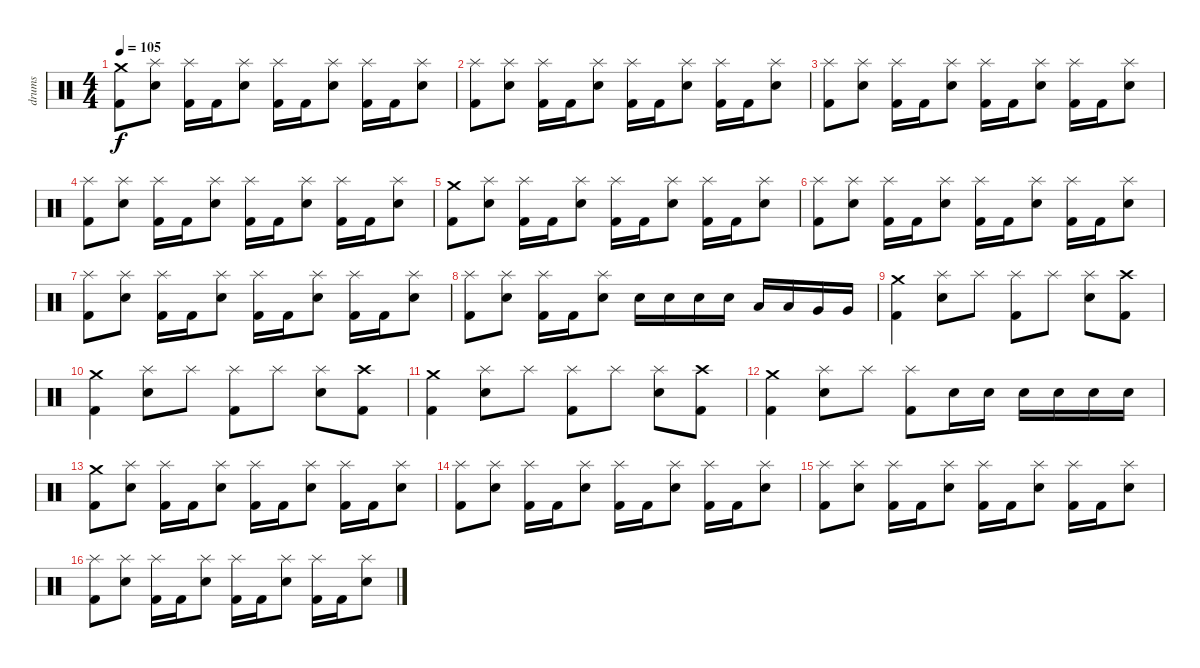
\track ("drums" "drums") {instrument percussion}
\staff {score}
\articulation defaults
\ts (4 4)
\tempo 105
\clef neutral
\ks c
("Crash medium (hit)" "Kick (hit) 2").8{dy f} ("Splash (hit)" "Electric Snare (hit)").8 ("Splash (hit)" "Kick (hit) 2").16 "Kick (hit) 2".16 ("Splash (hit)" "Electric Snare (hit)").8 ("Splash (hit)" "Kick (hit) 2").16 "Kick (hit) 2".16 ("Splash (hit)" "Electric Snare (hit)").8 ("Splash (hit)" "Kick (hit) 2").16 "Kick (hit) 2".16 ("Splash (hit)" "Electric Snare (hit)").8 |
("Splash (hit)" "Kick (hit) 2").8 ("Splash (hit)" "Electric Snare (hit)").8 ("Splash (hit)" "Kick (hit) 2").16 "Kick (hit) 2".16 ("Splash (hit)" "Electric Snare (hit)").8 ("Splash (hit)" "Kick (hit) 2").16 "Kick (hit) 2".16 ("Splash (hit)" "Electric Snare (hit)").8 ("Splash (hit)" "Kick (hit) 2").16 "Kick (hit) 2".16 ("Splash (hit)" "Electric Snare (hit)").8 |
("Splash (hit)" "Kick (hit) 2").8 ("Splash (hit)" "Electric Snare (hit)").8 ("Splash (hit)" "Kick (hit) 2").16 "Kick (hit) 2".16 ("Splash (hit)" "Electric Snare (hit)").8 ("Splash (hit)" "Kick (hit) 2").16 "Kick (hit) 2".16 ("Splash (hit)" "Electric Snare (hit)").8 ("Splash (hit)" "Kick (hit) 2").16 "Kick (hit) 2".16 ("Splash (hit)" "Electric Snare (hit)").8 |
("Splash (hit)" "Kick (hit) 2").8 ("Splash (hit)" "Electric Snare (hit)").8 ("Splash (hit)" "Kick (hit) 2").16 "Kick (hit) 2".16 ("Splash (hit)" "Electric Snare (hit)").8 ("Splash (hit)" "Kick (hit) 2").16 "Kick (hit) 2".16 ("Splash (hit)" "Electric Snare (hit)").8 ("Splash (hit)" "Kick (hit) 2").16 "Kick (hit) 2".16 ("Splash (hit)" "Electric Snare (hit)").8 |
("Crash medium (hit)" "Kick (hit) 2").8 ("Splash (hit)" "Electric Snare (hit)").8 ("Splash (hit)" "Kick (hit) 2").16 "Kick (hit) 2".16 ("Splash (hit)" "Electric Snare (hit)").8 ("Splash (hit)" "Kick (hit) 2").16 "Kick (hit) 2".16 ("Splash (hit)" "Electric Snare (hit)").8 ("Splash (hit)" "Kick (hit) 2").16 "Kick (hit) 2".16 ("Splash (hit)" "Electric Snare (hit)").8 |
("Splash (hit)" "Kick (hit) 2").8 ("Splash (hit)" "Electric Snare (hit)").8 ("Splash (hit)" "Kick (hit) 2").16 "Kick (hit) 2".16 ("Splash (hit)" "Electric Snare (hit)").8 ("Splash (hit)" "Kick (hit) 2").16 "Kick (hit) 2".16 ("Splash (hit)" "Electric Snare (hit)").8 ("Splash (hit)" "Kick (hit) 2").16 "Kick (hit) 2".16 ("Splash (hit)" "Electric Snare (hit)").8 |
("Splash (hit)" "Kick (hit) 2").8 ("Splash (hit)" "Electric Snare (hit)").8 ("Splash (hit)" "Kick (hit) 2").16 "Kick (hit) 2".16 ("Splash (hit)" "Electric Snare (hit)").8 ("Splash (hit)" "Kick (hit) 2").16 "Kick (hit) 2".16 ("Splash (hit)" "Electric Snare (hit)").8 ("Splash (hit)" "Kick (hit) 2").16 "Kick (hit) 2".16 ("Splash (hit)" "Electric Snare (hit)").8 |
("Splash (hit)" "Kick (hit) 2").8 ("Splash (hit)" "Electric Snare (hit)").8 ("Splash (hit)" "Kick (hit) 2").16 "Kick (hit) 2".16 ("Splash (hit)" "Electric Snare (hit)").8 "Electric Snare (hit)".16 "Electric Snare (hit)".16 "Electric Snare (hit)".16 "Electric Snare (hit)".16 "Low Tom (hit)".16 "Low Tom (hit)".16 "Very Low Tom (hit)".16 "Very Low Tom (hit)".16 |
("Crash medium (hit)" "Kick (hit) 2").4 ("Splash (hit)" "Electric Snare (hit)").8 "Splash (hit)".8 ("Splash (hit)" "Kick (hit) 2").8 "Splash (hit)".8 ("Splash (hit)" "Electric Snare (hit)").8 ("Crash high (hit)" "Kick (hit) 2").8 |
("Crash medium (hit)" "Kick (hit) 2").4 ("Splash (hit)" "Electric Snare (hit)").8 "Splash (hit)".8 ("Splash (hit)" "Kick (hit) 2").8 "Splash (hit)".8 ("Splash (hit)" "Electric Snare (hit)").8 ("Crash high (hit)" "Kick (hit) 2").8 |
("Crash medium (hit)" "Kick (hit) 2").4 ("Splash (hit)" "Electric Snare (hit)").8 "Splash (hit)".8 ("Splash (hit)" "Kick (hit) 2").8 "Splash (hit)".8 ("Splash (hit)" "Electric Snare (hit)").8 ("Crash high (hit)" "Kick (hit) 2").8 |
("Crash medium (hit)" "Kick (hit) 2").4 ("Splash (hit)" "Electric Snare (hit)").8 "Splash (hit)".8 ("Splash (hit)" "Kick (hit) 2").8 "Electric Snare (hit)".16 "Electric Snare (hit)".16 "Electric Snare (hit)".16 "Electric Snare (hit)".16 "Electric Snare (hit)".16 "Electric Snare (hit)".16 |
("Crash medium (hit)" "Kick (hit) 2").8 ("Splash (hit)" "Electric Snare (hit)").8 ("Splash (hit)" "Kick (hit) 2").16 "Kick (hit) 2".16 ("Splash (hit)" "Electric Snare (hit)").8 ("Splash (hit)" "Kick (hit) 2").16 "Kick (hit) 2".16 ("Splash (hit)" "Electric Snare (hit)").8 ("Splash (hit)" "Kick (hit) 2").16 "Kick (hit) 2".16 ("Splash (hit)" "Electric Snare (hit)").8 |
("Splash (hit)" "Kick (hit) 2").8 ("Splash (hit)" "Electric Snare (hit)").8 ("Splash (hit)" "Kick (hit) 2").16 "Kick (hit) 2".16 ("Splash (hit)" "Electric Snare (hit)").8 ("Splash (hit)" "Kick (hit) 2").16 "Kick (hit) 2".16 ("Splash (hit)" "Electric Snare (hit)").8 ("Splash (hit)" "Kick (hit) 2").16 "Kick (hit) 2".16 ("Splash (hit)" "Electric Snare (hit)").8 |
("Splash (hit)" "Kick (hit) 2").8 ("Splash (hit)" "Electric Snare (hit)").8 ("Splash (hit)" "Kick (hit) 2").16 "Kick (hit) 2".16 ("Splash (hit)" "Electric Snare (hit)").8 ("Splash (hit)" "Kick (hit) 2").16 "Kick (hit) 2".16 ("Splash (hit)" "Electric Snare (hit)").8 ("Splash (hit)" "Kick (hit) 2").16 "Kick (hit) 2".16 ("Splash (hit)" "Electric Snare (hit)").8 |
("Splash (hit)" "Kick (hit) 2").8 ("Splash (hit)" "Electric Snare (hit)").8 ("Splash (hit)" "Kick (hit) 2").16 "Kick (hit) 2".16 ("Splash (hit)" "Electric Snare (hit)").8 ("Splash (hit)" "Kick (hit) 2").16 "Kick (hit) 2".16 ("Splash (hit)" "Electric Snare (hit)").8 ("Splash (hit)" "Kick (hit) 2").16 "Kick (hit) 2".16 ("Splash (hit)" "Electric Snare (hit)").8
